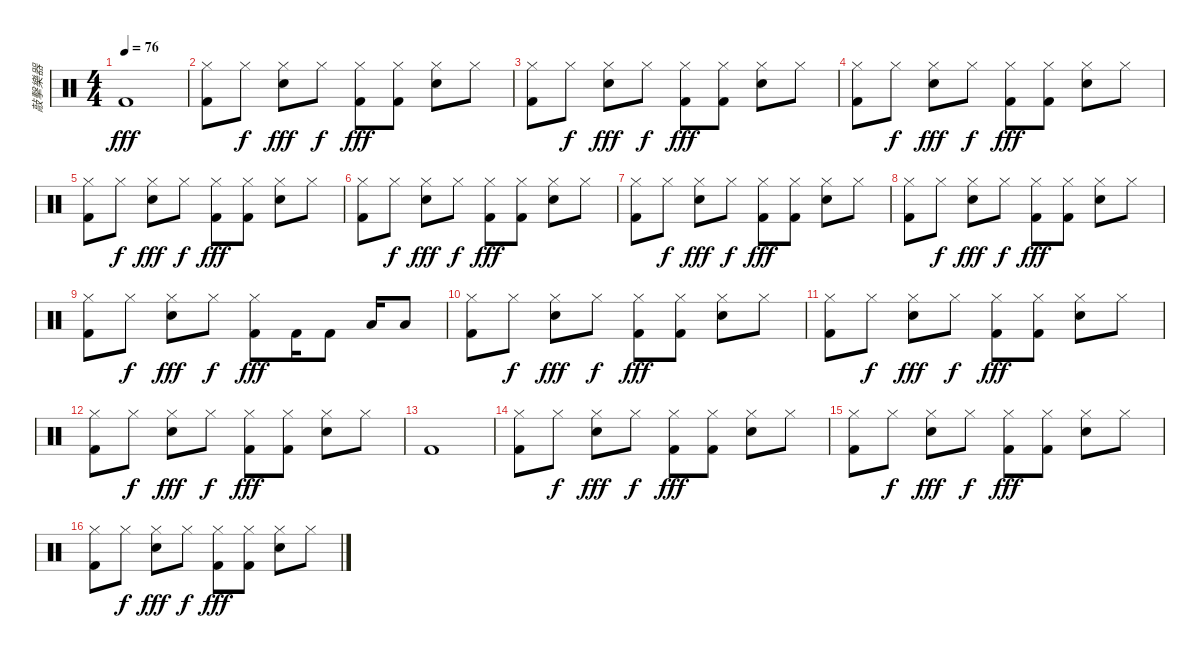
\track ("敲擊樂器" "敲擊樂器") {instrument percussion}
\staff {score}
\articulation defaults
\ts (4 4)
\tempo 76
\clef neutral
\ks c "Kick (hit) 2".1{dy fff}
|
("Hi-Hat (closed)" "Kick (hit) 2").8 "Hi-Hat (closed)".8{dy f} ("Hi-Hat (closed)" "Snare (hit) 2").8{dy fff} "Hi-Hat (closed)".8{dy f} ("Hi-Hat (closed)" "Kick (hit) 2").8{dy fff} ("Hi-Hat (closed)" "Kick (hit) 2").8 ("Hi-Hat (closed)" "Snare (hit) 2").8 "Hi-Hat (closed)".8 |
("Hi-Hat (closed)" "Kick (hit) 2").8 "Hi-Hat (closed)".8{dy f} ("Hi-Hat (closed)" "Snare (hit) 2").8{dy fff} "Hi-Hat (closed)".8{dy f} ("Hi-Hat (closed)" "Kick (hit) 2").8{dy fff} ("Hi-Hat (closed)" "Kick (hit) 2").8 ("Hi-Hat (closed)" "Snare (hit) 2").8 "Hi-Hat (closed)".8 |
("Hi-Hat (closed)" "Kick (hit) 2").8 "Hi-Hat (closed)".8{dy f} ("Hi-Hat (closed)" "Snare (hit) 2").8{dy fff} "Hi-Hat (closed)".8{dy f} ("Hi-Hat (closed)" "Kick (hit) 2").8{dy fff} ("Hi-Hat (closed)" "Kick (hit) 2").8 ("Hi-Hat (closed)" "Snare (hit) 2").8 "Hi-Hat (closed)".8 |
("Hi-Hat (closed)" "Kick (hit) 2").8 "Hi-Hat (closed)".8{dy f} ("Hi-Hat (closed)" "Snare (hit) 2").8{dy fff} "Hi-Hat (closed)".8{dy f} ("Hi-Hat (closed)" "Kick (hit) 2").8{dy fff} ("Hi-Hat (closed)" "Kick (hit) 2").8 ("Hi-Hat (closed)" "Snare (hit) 2").8 "Hi-Hat (closed)".8 |
("Hi-Hat (closed)" "Kick (hit) 2").8 "Hi-Hat (closed)".8{dy f} ("Hi-Hat (closed)" "Snare (hit) 2").8{dy fff} "Hi-Hat (closed)".8{dy f} ("Hi-Hat (closed)" "Kick (hit) 2").8{dy fff} ("Hi-Hat (closed)" "Kick (hit) 2").8 ("Hi-Hat (closed)" "Snare (hit) 2").8 "Hi-Hat (closed)".8 |
("Hi-Hat (closed)" "Kick (hit) 2").8 "Hi-Hat (closed)".8{dy f} ("Hi-Hat (closed)" "Snare (hit) 2").8{dy fff} "Hi-Hat (closed)".8{dy f} ("Hi-Hat (closed)" "Kick (hit) 2").8{dy fff} ("Hi-Hat (closed)" "Kick (hit) 2").8 ("Hi-Hat (closed)" "Snare (hit) 2").8 "Hi-Hat (closed)".8 |
("Hi-Hat (closed)" "Kick (hit) 2").8 "Hi-Hat (closed)".8{dy f} ("Hi-Hat (closed)" "Snare (hit) 2").8{dy fff} "Hi-Hat (closed)".8{dy f} ("Hi-Hat (closed)" "Kick (hit) 2").8{dy fff} ("Hi-Hat (closed)" "Kick (hit) 2").8 ("Hi-Hat (closed)" "Snare (hit) 2").8 "Hi-Hat (closed)".8 |
("Hi-Hat (closed)" "Kick (hit) 2").8 "Hi-Hat (closed)".8{dy f} ("Hi-Hat (closed)" "Snare (hit) 2").8{dy fff} "Hi-Hat (closed)".8{dy f} ("Hi-Hat (closed)" "Kick (hit) 2").8{dy fff} "Kick (hit) 2".16 "Kick (hit) 2".8 "Low Floor Tom (hit)".16 "Low Floor Tom (hit)".8 |
("Hi-Hat (closed)" "Kick (hit) 2").8 "Hi-Hat (closed)".8{dy f} ("Hi-Hat (closed)" "Snare (hit) 2").8{dy fff} "Hi-Hat (closed)".8{dy f} ("Hi-Hat (closed)" "Kick (hit) 2").8{dy fff} ("Hi-Hat (closed)" "Kick (hit) 2").8 ("Hi-Hat (closed)" "Snare (hit) 2").8 "Hi-Hat (closed)".8 |
("Hi-Hat (closed)" "Kick (hit) 2").8 "Hi-Hat (closed)".8{dy f} ("Hi-Hat (closed)" "Snare (hit) 2").8{dy fff} "Hi-Hat (closed)".8{dy f} ("Hi-Hat (closed)" "Kick (hit) 2").8{dy fff} ("Hi-Hat (closed)" "Kick (hit) 2").8 ("Hi-Hat (closed)" "Snare (hit) 2").8 "Hi-Hat (closed)".8 |
("Hi-Hat (closed)" "Kick (hit) 2").8 "Hi-Hat (closed)".8{dy f} ("Hi-Hat (closed)" "Snare (hit) 2").8{dy fff} "Hi-Hat (closed)".8{dy f} ("Hi-Hat (closed)" "Kick (hit) 2").8{dy fff} ("Hi-Hat (closed)" "Kick (hit) 2").8 ("Hi-Hat (closed)" "Snare (hit) 2").8 "Hi-Hat (closed)".8 |
"Kick (hit) 2".1 |
("Hi-Hat (closed)" "Kick (hit) 2").8 "Hi-Hat (closed)".8{dy f} ("Hi-Hat (closed)" "Snare (hit) 2").8{dy fff} "Hi-Hat (closed)".8{dy f} ("Hi-Hat (closed)" "Kick (hit) 2").8{dy fff} ("Hi-Hat (closed)" "Kick (hit) 2").8 ("Hi-Hat (closed)" "Snare (hit) 2").8 "Hi-Hat (closed)".8 |
("Hi-Hat (closed)" "Kick (hit) 2").8 "Hi-Hat (closed)".8{dy f} ("Hi-Hat (closed)" "Snare (hit) 2").8{dy fff} "Hi-Hat (closed)".8{dy f} ("Hi-Hat (closed)" "Kick (hit) 2").8{dy fff} ("Hi-Hat (closed)" "Kick (hit) 2").8 ("Hi-Hat (closed)" "Snare (hit) 2").8 "Hi-Hat (closed)".8 |
("Hi-Hat (closed)" "Kick (hit) 2").8 "Hi-Hat (closed)".8{dy f} ("Hi-Hat (closed)" "Snare (hit) 2").8{dy fff} "Hi-Hat (closed)".8{dy f} ("Hi-Hat (closed)" "Kick (hit) 2").8{dy fff} ("Hi-Hat (closed)" "Kick (hit) 2").8 ("Hi-Hat (closed)" "Snare (hit) 2").8 "Hi-Hat (closed)".8
